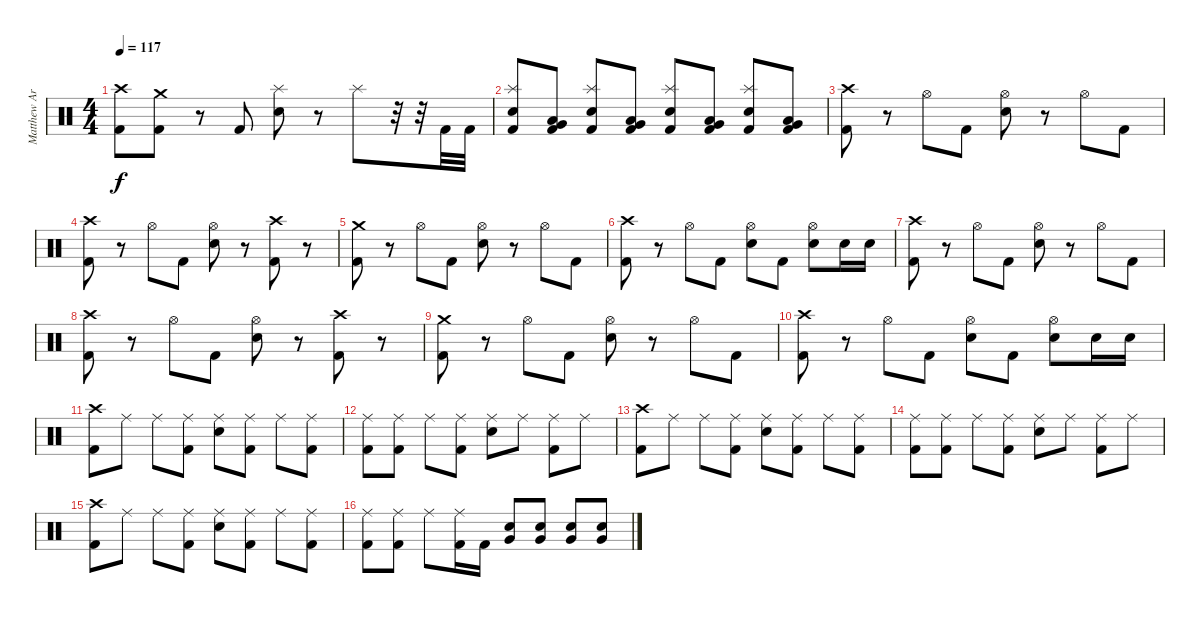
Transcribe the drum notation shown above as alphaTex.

\track ("Matthew Archer" "Matthew Ar") {instrument percussion}
\staff {score}
\articulation defaults
\ts (4 4)
\tempo 117
\clef neutral
\ks c
("Crash high (hit)" "Kick (hit) 2").8{dy f} ("Crash medium (hit)" "Kick (hit) 2").8 r.8 "Kick (hit) 2".8 ("Splash (hit)" "Snare (hit) 2").8 r.8 "Splash (hit)".8 r.32 r.32 "Kick (hit) 2".32 "Kick (hit) 2".32 |
("Splash (hit)" "Snare (hit) 2" "Kick (hit) 2").8 ("Low Tom (hit)" "Very Low Tom (hit)" "Kick (hit) 2").8 ("Splash (hit)" "Snare (hit) 2" "Kick (hit) 2").8 ("Low Tom (hit)" "Very Low Tom (hit)" "Kick (hit) 2").8 ("Splash (hit)" "Snare (hit) 2" "Kick (hit) 2").8 ("Low Tom (hit)" "Very Low Tom (hit)" "Kick (hit) 2").8 ("Splash (hit)" "Snare (hit) 2" "Kick (hit) 2").8 ("Low Tom (hit)" "Very Low Tom (hit)" "Kick (hit) 2").8 |
("Crash high (hit)" "Kick (hit) 2").8 r.8 "Hi-Hat (open)".8 "Kick (hit) 2".8 ("Hi-Hat (open)" "Snare (hit) 2").8 r.8 "Hi-Hat (open)".8 "Kick (hit) 2".8 |
("Crash high (hit)" "Kick (hit) 2").8 r.8 "Hi-Hat (open)".8 "Kick (hit) 2".8 ("Hi-Hat (open)" "Snare (hit) 2").8 r.8 ("Crash high (hit)" "Kick (hit) 2").8 r.8 |
("Crash medium (hit)" "Kick (hit) 2").8 r.8 "Hi-Hat (open)".8 "Kick (hit) 2".8 ("Hi-Hat (open)" "Snare (hit) 2").8 r.8 "Hi-Hat (open)".8 "Kick (hit) 2".8 |
("Crash high (hit)" "Kick (hit) 2").8 r.8 "Hi-Hat (open)".8 "Kick (hit) 2".8 ("Hi-Hat (open)" "Snare (hit) 2").8 "Kick (hit) 2".8 ("Hi-Hat (open)" "Snare (hit) 2").8 "Snare (hit) 2".16 "Snare (hit) 2".16 |
("Crash high (hit)" "Kick (hit) 2").8 r.8 "Hi-Hat (open)".8 "Kick (hit) 2".8 ("Hi-Hat (open)" "Snare (hit) 2").8 r.8 "Hi-Hat (open)".8 "Kick (hit) 2".8 |
("Crash high (hit)" "Kick (hit) 2").8 r.8 "Hi-Hat (open)".8 "Kick (hit) 2".8 ("Hi-Hat (open)" "Snare (hit) 2").8 r.8 ("Crash high (hit)" "Kick (hit) 2").8 r.8 |
("Crash medium (hit)" "Kick (hit) 2").8 r.8 "Hi-Hat (open)".8 "Kick (hit) 2".8 ("Hi-Hat (open)" "Snare (hit) 2").8 r.8 "Hi-Hat (open)".8 "Kick (hit) 2".8 |
("Crash high (hit)" "Kick (hit) 2").8 r.8 "Hi-Hat (open)".8 "Kick (hit) 2".8 ("Hi-Hat (open)" "Snare (hit) 2").8 "Kick (hit) 2".8 ("Hi-Hat (open)" "Snare (hit) 2").8 "Snare (hit) 2".16 "Snare (hit) 2".16 |
("Crash high (hit)" "Kick (hit) 2").8 "Ride (middle)".8 "Ride (middle)".8 ("Ride (middle)" "Kick (hit) 2").8 ("Ride (middle)" "Snare (hit) 2").8 ("Ride (middle)" "Kick (hit) 2").8 "Ride (middle)".8 ("Ride (middle)" "Kick (hit) 2").8 |
("Ride (middle)" "Kick (hit) 2").8 ("Ride (middle)" "Kick (hit) 2").8 "Ride (middle)".8 ("Ride (middle)" "Kick (hit) 2").8 ("Ride (middle)" "Snare (hit) 2").8 "Ride (middle)".8 ("Ride (middle)" "Kick (hit) 2").8 "Ride (middle)".8 |
("Crash high (hit)" "Kick (hit) 2").8 "Ride (middle)".8 "Ride (middle)".8 ("Ride (middle)" "Kick (hit) 2").8 ("Ride (middle)" "Snare (hit) 2").8 ("Ride (middle)" "Kick (hit) 2").8 "Ride (middle)".8 ("Ride (middle)" "Kick (hit) 2").8 |
("Ride (middle)" "Kick (hit) 2").8 ("Ride (middle)" "Kick (hit) 2").8 "Ride (middle)".8 ("Ride (middle)" "Kick (hit) 2").8 ("Ride (middle)" "Snare (hit) 2").8 "Ride (middle)".8 ("Ride (middle)" "Kick (hit) 2").8 "Ride (middle)".8 |
("Crash high (hit)" "Kick (hit) 2").8 "Ride (middle)".8 "Ride (middle)".8 ("Ride (middle)" "Kick (hit) 2").8 ("Ride (middle)" "Snare (hit) 2").8 ("Ride (middle)" "Kick (hit) 2").8 "Ride (middle)".8 ("Ride (middle)" "Kick (hit) 2").8 |
("Ride (middle)" "Kick (hit) 2").8 ("Ride (middle)" "Kick (hit) 2").8 "Ride (middle)".8 ("Ride (middle)" "Kick (hit) 2").16 "Kick (hit) 2".16 ("Very Low Tom (hit)" "Snare (hit) 2").8 ("Very Low Tom (hit)" "Snare (hit) 2").8 ("Very Low Tom (hit)" "Snare (hit) 2").8 ("Very Low Tom (hit)" "Snare (hit) 2").8
